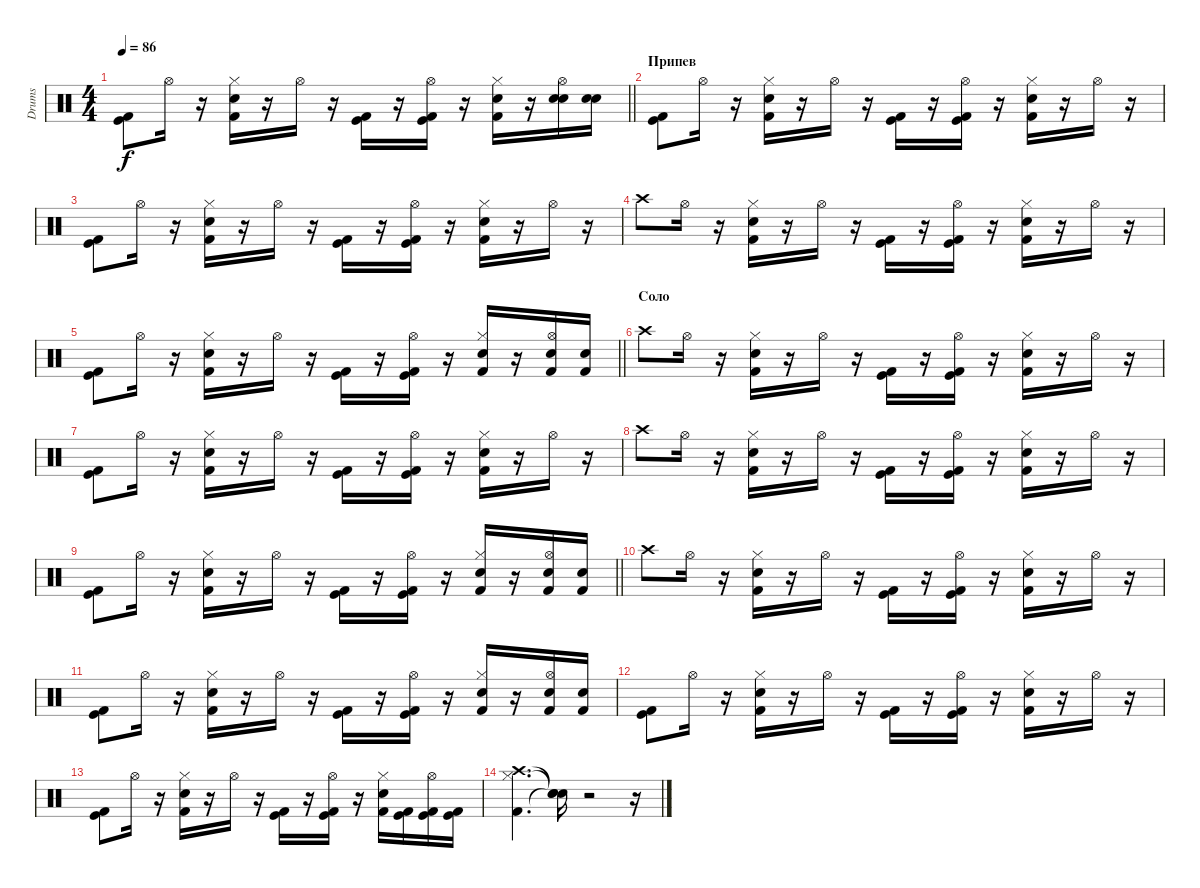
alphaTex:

\track ("Drums" "Drums") {instrument percussion}
\staff {score}
\articulation defaults
\ts (4 4)
\tempo 86
\clef neutral
\barLineRight lightlight
\ks c
("Kick (hit) 2" "Kick (hit)").8{dy f} "Hi-Hat (open)".16 r.16 ("Hi-Hat (closed)" "Snare (hit) 2" "Kick (hit) 2").16 r.16 "Hi-Hat (open)".16 r.16 ("Kick (hit) 2" "Kick (hit)").16 r.16 ("Kick (hit) 2" "Kick (hit)" "Hi-Hat (open)").16 r.16 ("Hi-Hat (closed)" "Snare (hit) 2" "Kick (hit) 2").16 r.16 ("Snare (hit) 2" "Electric Snare (hit)" "Hi-Hat (open)").16 ("Snare (hit) 2" "Electric Snare (hit)").16 |
\section ("" "Припев")
("Kick (hit) 2" "Kick (hit)").8 "Hi-Hat (open)".16 r.16 ("Hi-Hat (closed)" "Snare (hit) 2" "Kick (hit) 2").16 r.16 "Hi-Hat (open)".16 r.16 ("Kick (hit) 2" "Kick (hit)").16 r.16 ("Kick (hit) 2" "Kick (hit)" "Hi-Hat (open)").16 r.16 ("Hi-Hat (closed)" "Snare (hit) 2" "Kick (hit) 2").16 r.16 "Hi-Hat (open)".16 r.16 |
("Kick (hit)" "Kick (hit) 2").8 "Hi-Hat (open)".16 r.16 ("Hi-Hat (closed)" "Snare (hit) 2" "Kick (hit) 2").16 r.16 "Hi-Hat (open)".16 r.16 ("Kick (hit) 2" "Kick (hit)").16 r.16 ("Kick (hit) 2" "Kick (hit)" "Hi-Hat (open)").16 r.16 ("Hi-Hat (closed)" "Snare (hit) 2" "Kick (hit) 2").16 r.16 "Hi-Hat (open)".16 r.16 |
"Crash high (hit)".8 "Hi-Hat (open)".16 r.16 ("Hi-Hat (closed)" "Snare (hit) 2" "Kick (hit) 2").16 r.16 "Hi-Hat (open)".16 r.16 ("Kick (hit) 2" "Kick (hit)").16 r.16 ("Kick (hit) 2" "Kick (hit)" "Hi-Hat (open)").16 r.16 ("Hi-Hat (closed)" "Snare (hit) 2" "Kick (hit) 2").16 r.16 "Hi-Hat (open)".16 r.16 |
\barLineRight lightlight
("Kick (hit) 2" "Kick (hit)").8 "Hi-Hat (open)".16 r.16 ("Hi-Hat (closed)" "Snare (hit) 2" "Kick (hit) 2").16 r.16 "Hi-Hat (open)".16 r.16 ("Kick (hit) 2" "Kick (hit)").16 r.16 ("Kick (hit) 2" "Kick (hit)" "Hi-Hat (open)").16 r.16 ("Hi-Hat (closed)" "Snare (hit) 2" "Kick (hit) 2").16 r.16 ("Kick (hit) 2" "Electric Snare (hit)" "Hi-Hat (open)").16 ("Kick (hit) 2" "Electric Snare (hit)").16 |
\section ("" "Соло")
"Crash high (hit)".8 "Hi-Hat (open)".16 r.16 ("Hi-Hat (closed)" "Snare (hit) 2" "Kick (hit) 2").16 r.16 "Hi-Hat (open)".16 r.16 ("Kick (hit) 2" "Kick (hit)").16 r.16 ("Kick (hit) 2" "Kick (hit)" "Hi-Hat (open)").16 r.16 ("Hi-Hat (closed)" "Snare (hit) 2" "Kick (hit) 2").16 r.16 "Hi-Hat (open)".16 r.16 |
("Kick (hit) 2" "Kick (hit)").8 "Hi-Hat (open)".16 r.16 ("Hi-Hat (closed)" "Snare (hit) 2" "Kick (hit) 2").16 r.16 "Hi-Hat (open)".16 r.16 ("Kick (hit) 2" "Kick (hit)").16 r.16 ("Kick (hit) 2" "Kick (hit)" "Hi-Hat (open)").16 r.16 ("Hi-Hat (closed)" "Snare (hit) 2" "Kick (hit) 2").16 r.16 "Hi-Hat (open)".16 r.16 |
"Crash high (hit)".8 "Hi-Hat (open)".16 r.16 ("Hi-Hat (closed)" "Snare (hit) 2" "Kick (hit) 2").16 r.16 "Hi-Hat (open)".16 r.16 ("Kick (hit) 2" "Kick (hit)").16 r.16 ("Kick (hit) 2" "Kick (hit)" "Hi-Hat (open)").16 r.16 ("Hi-Hat (closed)" "Snare (hit) 2" "Kick (hit) 2").16 r.16 "Hi-Hat (open)".16 r.16 |
\barLineRight lightlight
("Kick (hit) 2" "Kick (hit)").8 "Hi-Hat (open)".16 r.16 ("Hi-Hat (closed)" "Snare (hit) 2" "Kick (hit) 2").16 r.16 "Hi-Hat (open)".16 r.16 ("Kick (hit) 2" "Kick (hit)").16 r.16 ("Kick (hit) 2" "Kick (hit)" "Hi-Hat (open)").16 r.16 ("Hi-Hat (closed)" "Snare (hit) 2" "Kick (hit) 2").16 r.16 ("Kick (hit) 2" "Electric Snare (hit)" "Hi-Hat (open)").16 ("Kick (hit) 2" "Electric Snare (hit)").16 |
"Crash high (hit)".8 "Hi-Hat (open)".16 r.16 ("Hi-Hat (closed)" "Snare (hit) 2" "Kick (hit) 2").16 r.16 "Hi-Hat (open)".16 r.16 ("Kick (hit) 2" "Kick (hit)").16 r.16 ("Kick (hit) 2" "Kick (hit)" "Hi-Hat (open)").16 r.16 ("Hi-Hat (closed)" "Snare (hit) 2" "Kick (hit) 2").16 r.16 "Hi-Hat (open)".16 r.16 |
("Kick (hit) 2" "Kick (hit)").8 "Hi-Hat (open)".16 r.16 ("Hi-Hat (closed)" "Snare (hit) 2" "Kick (hit) 2").16 r.16 "Hi-Hat (open)".16 r.16 ("Kick (hit) 2" "Kick (hit)").16 r.16 ("Kick (hit) 2" "Kick (hit)" "Hi-Hat (open)").16 r.16 ("Hi-Hat (closed)" "Snare (hit) 2" "Kick (hit) 2").16 r.16 ("Kick (hit) 2" "Electric Snare (hit)" "Hi-Hat (open)").16 ("Kick (hit) 2" "Electric Snare (hit)").16 |
("Kick (hit) 2" "Kick (hit)").8 "Hi-Hat (open)".16 r.16 ("Hi-Hat (closed)" "Snare (hit) 2" "Kick (hit) 2").16 r.16 "Hi-Hat (open)".16 r.16 ("Kick (hit) 2" "Kick (hit)").16 r.16 ("Kick (hit) 2" "Kick (hit)" "Hi-Hat (open)").16 r.16 ("Hi-Hat (closed)" "Snare (hit) 2" "Kick (hit) 2").16 r.16 "Hi-Hat (open)".16 r.16 |
("Kick (hit) 2" "Kick (hit)").8 "Hi-Hat (open)".16 r.16 ("Hi-Hat (closed)" "Snare (hit) 2" "Kick (hit) 2").16 r.16 "Hi-Hat (open)".16 r.16 ("Kick (hit) 2" "Kick (hit)").16 r.16 ("Kick (hit) 2" "Kick (hit)" "Hi-Hat (open)").16 r.16 ("Hi-Hat (closed)" "Kick (hit) 2" "Snare (hit) 2").16 ("Kick (hit)" "Kick (hit) 2").16 ("Kick (hit)" "Kick (hit) 2" "Hi-Hat (open)").16 ("Kick (hit)" "Kick (hit) 2").16 |
("Crash high (hit)" "Hi-Hat (closed)" "Kick (hit) 2").4{d} ("Snare (hit)"{t} "Snare (hit)"{t} "Snare (hit)"{t}).16 r.2 r.16
